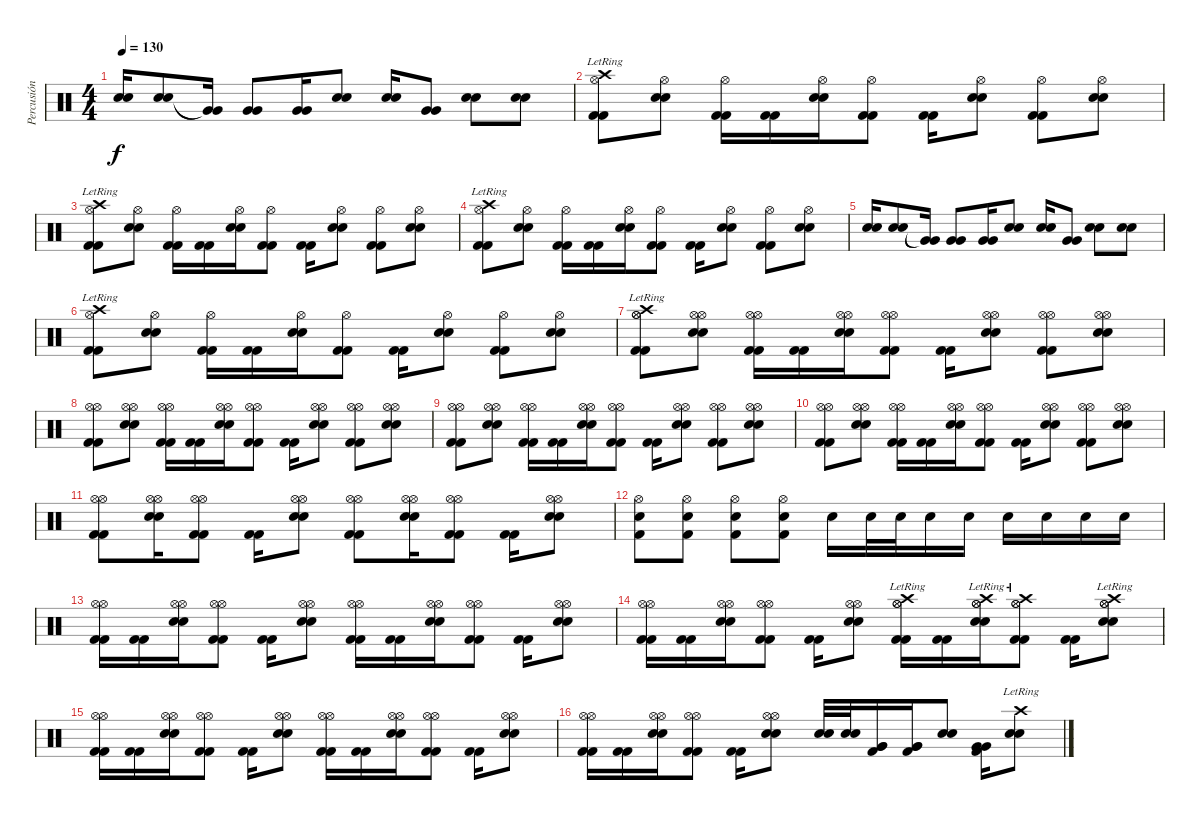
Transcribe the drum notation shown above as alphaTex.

\track ("Percusión" "Percusión") {instrument percussion}
\staff {score}
\articulation defaults
\ts (4 4)
\tempo 130
\clef neutral
\ks c
("Snare (hit) 2" "Snare (hit) 2").16{dy f} ("Snare (hit) 2" "Snare (hit) 2").8 ("Very Low Tom (hit)"{t} "Very Low Tom (hit)"{t}).16 ("Very Low Tom (hit)" "Very Low Tom (hit)").8 ("Very Low Tom (hit)" "Very Low Tom (hit)").16 ("Snare (hit) 2" "Snare (hit) 2").8 ("Snare (hit) 2" "Snare (hit) 2").16 ("Very Low Tom (hit)" "Very Low Tom (hit)").8 ("Snare (hit) 2" "Snare (hit) 2").8 ("Snare (hit) 2" "Snare (hit) 2").8 |
("Kick (hit) 2" "Kick (hit) 2" "Hi-Hat (open)" "Crash high (hit)"{lr}).8 ("Snare (hit) 2" "Snare (hit) 2" "Hi-Hat (open)").8 ("Kick (hit) 2" "Kick (hit) 2" "Hi-Hat (open)").16 ("Kick (hit) 2" "Kick (hit) 2").16 ("Snare (hit) 2" "Snare (hit) 2" "Hi-Hat (open)").16 ("Kick (hit) 2" "Kick (hit) 2" "Hi-Hat (open)").8 ("Kick (hit) 2" "Kick (hit) 2").16 ("Snare (hit) 2" "Snare (hit) 2" "Hi-Hat (open)").8 ("Kick (hit) 2" "Kick (hit) 2" "Hi-Hat (open)").8 ("Snare (hit) 2" "Snare (hit) 2" "Hi-Hat (open)").8 |
("Kick (hit) 2" "Kick (hit) 2" "Hi-Hat (open)" "Crash high (hit)"{lr}).8 ("Snare (hit) 2" "Snare (hit) 2" "Hi-Hat (open)").8 ("Kick (hit) 2" "Kick (hit) 2" "Hi-Hat (open)").16 ("Kick (hit) 2" "Kick (hit) 2").16 ("Snare (hit) 2" "Snare (hit) 2" "Hi-Hat (open)").16 ("Kick (hit) 2" "Kick (hit) 2" "Hi-Hat (open)").8 ("Kick (hit) 2" "Kick (hit) 2").16 ("Snare (hit) 2" "Snare (hit) 2" "Hi-Hat (open)").8 ("Kick (hit) 2" "Kick (hit) 2" "Hi-Hat (open)").8 ("Snare (hit) 2" "Snare (hit) 2" "Hi-Hat (open)").8 |
("Kick (hit) 2" "Kick (hit) 2" "Hi-Hat (open)" "Crash high (hit)"{lr}).8 ("Snare (hit) 2" "Snare (hit) 2" "Hi-Hat (open)").8 ("Kick (hit) 2" "Kick (hit) 2" "Hi-Hat (open)").16 ("Kick (hit) 2" "Kick (hit) 2").16 ("Snare (hit) 2" "Snare (hit) 2" "Hi-Hat (open)").16 ("Kick (hit) 2" "Kick (hit) 2" "Hi-Hat (open)").8 ("Kick (hit) 2" "Kick (hit) 2").16 ("Snare (hit) 2" "Snare (hit) 2" "Hi-Hat (open)").8 ("Kick (hit) 2" "Kick (hit) 2" "Hi-Hat (open)").8 ("Snare (hit) 2" "Snare (hit) 2" "Hi-Hat (open)").8 |
("Snare (hit) 2" "Snare (hit) 2").16 ("Snare (hit) 2" "Snare (hit) 2").8 ("Very Low Tom (hit)"{t} "Very Low Tom (hit)"{t}).16 ("Very Low Tom (hit)" "Very Low Tom (hit)").8 ("Very Low Tom (hit)" "Very Low Tom (hit)").16 ("Snare (hit) 2" "Snare (hit) 2").8 ("Snare (hit) 2" "Snare (hit) 2").16 ("Very Low Tom (hit)" "Very Low Tom (hit)").8 ("Snare (hit) 2" "Snare (hit) 2").8 ("Snare (hit) 2" "Snare (hit) 2").8 |
("Kick (hit) 2" "Kick (hit) 2" "Hi-Hat (open)" "Crash high (hit)"{lr}).8 ("Snare (hit) 2" "Snare (hit) 2" "Hi-Hat (open)").8 ("Kick (hit) 2" "Kick (hit) 2" "Hi-Hat (open)").16 ("Kick (hit) 2" "Kick (hit) 2").16 ("Snare (hit) 2" "Snare (hit) 2" "Hi-Hat (open)").16 ("Kick (hit) 2" "Kick (hit) 2" "Hi-Hat (open)").8 ("Kick (hit) 2" "Kick (hit) 2").16 ("Snare (hit) 2" "Snare (hit) 2" "Hi-Hat (open)").8 ("Kick (hit) 2" "Kick (hit) 2" "Hi-Hat (open)").8 ("Snare (hit) 2" "Snare (hit) 2" "Hi-Hat (open)").8 |
("Kick (hit) 2" "Kick (hit) 2" "Hi-Hat (open)" "Hi-Hat (open)" "Crash high (hit)"{lr}).8 ("Snare (hit) 2" "Snare (hit) 2" "Hi-Hat (open)" "Hi-Hat (open)").8 ("Kick (hit) 2" "Kick (hit) 2" "Hi-Hat (open)" "Hi-Hat (open)").16 ("Kick (hit) 2" "Kick (hit) 2").16 ("Snare (hit) 2" "Snare (hit) 2" "Hi-Hat (open)" "Hi-Hat (open)").16 ("Kick (hit) 2" "Kick (hit) 2" "Hi-Hat (open)" "Hi-Hat (open)").8 ("Kick (hit) 2" "Kick (hit) 2").16 ("Snare (hit) 2" "Snare (hit) 2" "Hi-Hat (open)" "Hi-Hat (open)").8 ("Kick (hit) 2" "Kick (hit) 2" "Hi-Hat (open)" "Hi-Hat (open)").8 ("Snare (hit) 2" "Snare (hit) 2" "Hi-Hat (open)" "Hi-Hat (open)").8 |
("Kick (hit) 2" "Kick (hit) 2" "Hi-Hat (open)" "Hi-Hat (open)").8 ("Snare (hit) 2" "Snare (hit) 2" "Hi-Hat (open)" "Hi-Hat (open)").8 ("Kick (hit) 2" "Kick (hit) 2" "Hi-Hat (open)" "Hi-Hat (open)").16 ("Kick (hit) 2" "Kick (hit) 2").16 ("Snare (hit) 2" "Snare (hit) 2" "Hi-Hat (open)" "Hi-Hat (open)").16 ("Kick (hit) 2" "Kick (hit) 2" "Hi-Hat (open)" "Hi-Hat (open)").8 ("Kick (hit) 2" "Kick (hit) 2").16 ("Snare (hit) 2" "Snare (hit) 2" "Hi-Hat (open)" "Hi-Hat (open)").8 ("Kick (hit) 2" "Kick (hit) 2" "Hi-Hat (open)" "Hi-Hat (open)").8 ("Snare (hit) 2" "Snare (hit) 2" "Hi-Hat (open)" "Hi-Hat (open)").8 |
("Kick (hit) 2" "Kick (hit) 2" "Hi-Hat (open)" "Hi-Hat (open)").8 ("Snare (hit) 2" "Snare (hit) 2" "Hi-Hat (open)" "Hi-Hat (open)").8 ("Kick (hit) 2" "Kick (hit) 2" "Hi-Hat (open)" "Hi-Hat (open)").16 ("Kick (hit) 2" "Kick (hit) 2").16 ("Snare (hit) 2" "Snare (hit) 2" "Hi-Hat (open)" "Hi-Hat (open)").16 ("Kick (hit) 2" "Kick (hit) 2" "Hi-Hat (open)" "Hi-Hat (open)").8 ("Kick (hit) 2" "Kick (hit) 2").16 ("Snare (hit) 2" "Snare (hit) 2" "Hi-Hat (open)" "Hi-Hat (open)").8 ("Kick (hit) 2" "Kick (hit) 2" "Hi-Hat (open)" "Hi-Hat (open)").8 ("Snare (hit) 2" "Snare (hit) 2" "Hi-Hat (open)" "Hi-Hat (open)").8 |
("Kick (hit) 2" "Kick (hit) 2" "Hi-Hat (open)" "Hi-Hat (open)").8 ("Snare (hit) 2" "Snare (hit) 2" "Hi-Hat (open)" "Hi-Hat (open)").8 ("Kick (hit) 2" "Kick (hit) 2" "Hi-Hat (open)" "Hi-Hat (open)").16 ("Kick (hit) 2" "Kick (hit) 2").16 ("Snare (hit) 2" "Snare (hit) 2" "Hi-Hat (open)" "Hi-Hat (open)").16 ("Kick (hit) 2" "Kick (hit) 2" "Hi-Hat (open)" "Hi-Hat (open)").8 ("Kick (hit) 2" "Kick (hit) 2").16 ("Snare (hit) 2" "Snare (hit) 2" "Hi-Hat (open)" "Hi-Hat (open)").8 ("Kick (hit) 2" "Kick (hit) 2" "Hi-Hat (open)" "Hi-Hat (open)").8 ("Snare (hit) 2" "Snare (hit) 2" "Hi-Hat (open)" "Hi-Hat (open)").8 |
("Kick (hit) 2" "Kick (hit) 2" "Hi-Hat (open)" "Hi-Hat (open)").8 ("Snare (hit) 2" "Snare (hit) 2" "Hi-Hat (open)" "Hi-Hat (open)").16 ("Kick (hit) 2" "Kick (hit) 2" "Hi-Hat (open)" "Hi-Hat (open)").8 ("Kick (hit) 2" "Kick (hit) 2").16 ("Snare (hit) 2" "Snare (hit) 2" "Hi-Hat (open)" "Hi-Hat (open)").8 ("Kick (hit) 2" "Kick (hit) 2" "Hi-Hat (open)" "Hi-Hat (open)").8 ("Snare (hit) 2" "Snare (hit) 2" "Hi-Hat (open)" "Hi-Hat (open)").16 ("Kick (hit) 2" "Kick (hit) 2" "Hi-Hat (open)" "Hi-Hat (open)").8 ("Kick (hit) 2" "Kick (hit) 2").16 ("Snare (hit) 2" "Snare (hit) 2" "Hi-Hat (open)" "Hi-Hat (open)").8 |
("Hi-Hat (open)" "Snare (hit) 2" "Kick (hit) 2").8 ("Hi-Hat (open)" "Snare (hit) 2" "Kick (hit) 2").8 ("Hi-Hat (open)" "Snare (hit) 2" "Kick (hit) 2").8 ("Hi-Hat (open)" "Snare (hit) 2" "Kick (hit) 2").8 "Snare (hit) 2".16 "Snare (hit) 2".32 "Snare (hit) 2".32 "Snare (hit) 2".16 "Snare (hit) 2".16 "Snare (hit) 2".16 "Snare (hit) 2".16 "Snare (hit) 2".16 "Snare (hit) 2".16 |
("Kick (hit) 2" "Kick (hit) 2" "Hi-Hat (open)" "Hi-Hat (open)").16 ("Kick (hit) 2" "Kick (hit) 2").16 ("Snare (hit) 2" "Snare (hit) 2" "Hi-Hat (open)" "Hi-Hat (open)").16 ("Kick (hit) 2" "Kick (hit) 2" "Hi-Hat (open)" "Hi-Hat (open)").8 ("Kick (hit) 2" "Kick (hit) 2").16 ("Snare (hit) 2" "Snare (hit) 2" "Hi-Hat (open)" "Hi-Hat (open)").8 ("Kick (hit) 2" "Kick (hit) 2" "Hi-Hat (open)" "Hi-Hat (open)").16 ("Kick (hit) 2" "Kick (hit) 2").16 ("Snare (hit) 2" "Snare (hit) 2" "Hi-Hat (open)" "Hi-Hat (open)").16 ("Kick (hit) 2" "Kick (hit) 2" "Hi-Hat (open)" "Hi-Hat (open)").8 ("Kick (hit) 2" "Kick (hit) 2").16 ("Snare (hit) 2" "Snare (hit) 2" "Hi-Hat (open)" "Hi-Hat (open)").8 |
("Kick (hit) 2" "Kick (hit) 2" "Hi-Hat (open)" "Hi-Hat (open)").16 ("Kick (hit) 2" "Kick (hit) 2").16 ("Snare (hit) 2" "Snare (hit) 2" "Hi-Hat (open)" "Hi-Hat (open)").16 ("Kick (hit) 2" "Kick (hit) 2" "Hi-Hat (open)" "Hi-Hat (open)").8 ("Kick (hit) 2" "Kick (hit) 2").16 ("Snare (hit) 2" "Snare (hit) 2" "Hi-Hat (open)" "Hi-Hat (open)").8 ("Kick (hit) 2" "Kick (hit) 2" "Hi-Hat (open)" "Hi-Hat (open)" "Crash high (hit)"{lr}).16 ("Kick (hit) 2" "Kick (hit) 2").16 ("Snare (hit) 2" "Snare (hit) 2" "Hi-Hat (open)" "Hi-Hat (open)" "Crash high (hit)"{lr}).16 ("Kick (hit) 2" "Kick (hit) 2" "Hi-Hat (open)" "Hi-Hat (open)" "Crash high (hit)"{lr}).8 ("Kick (hit) 2" "Kick (hit) 2").16 ("Snare (hit) 2" "Snare (hit) 2" "Hi-Hat (open)" "Hi-Hat (open)" "Crash high (hit)"{lr}).8 |
("Kick (hit) 2" "Kick (hit) 2" "Hi-Hat (open)" "Hi-Hat (open)").16 ("Kick (hit) 2" "Kick (hit) 2").16 ("Snare (hit) 2" "Snare (hit) 2" "Hi-Hat (open)" "Hi-Hat (open)").16 ("Kick (hit) 2" "Kick (hit) 2" "Hi-Hat (open)" "Hi-Hat (open)").8 ("Kick (hit) 2" "Kick (hit) 2").16 ("Snare (hit) 2" "Snare (hit) 2" "Hi-Hat (open)" "Hi-Hat (open)").8 ("Kick (hit) 2" "Kick (hit) 2" "Hi-Hat (open)" "Hi-Hat (open)").16 ("Kick (hit) 2" "Kick (hit) 2").16 ("Snare (hit) 2" "Snare (hit) 2" "Hi-Hat (open)" "Hi-Hat (open)").16 ("Kick (hit) 2" "Kick (hit) 2" "Hi-Hat (open)" "Hi-Hat (open)").8 ("Kick (hit) 2" "Kick (hit) 2").16 ("Snare (hit) 2" "Snare (hit) 2" "Hi-Hat (open)" "Hi-Hat (open)").8 |
("Kick (hit) 2" "Kick (hit) 2" "Hi-Hat (open)" "Hi-Hat (open)").16 ("Kick (hit) 2" "Kick (hit) 2").16 ("Snare (hit) 2" "Snare (hit) 2" "Hi-Hat (open)" "Hi-Hat (open)").16 ("Kick (hit) 2" "Kick (hit) 2" "Hi-Hat (open)" "Hi-Hat (open)").8 ("Kick (hit) 2" "Kick (hit) 2").16 ("Snare (hit) 2" "Snare (hit) 2" "Hi-Hat (open)" "Hi-Hat (open)").8 ("Snare (hit) 2" "Snare (hit) 2").32 ("Snare (hit) 2" "Snare (hit) 2").32 ("Very Low Tom (hit)" "Very Low Tom (hit)" "Kick (hit) 2").16 ("Very Low Tom (hit)" "Very Low Tom (hit)" "Kick (hit) 2").16 ("Snare (hit) 2" "Snare (hit) 2").8 ("Very Low Tom (hit)" "Very Low Tom (hit)" "Kick (hit) 2").16 ("Snare (hit) 2" "Snare (hit) 2" "Crash high (hit)"{lr}).8
